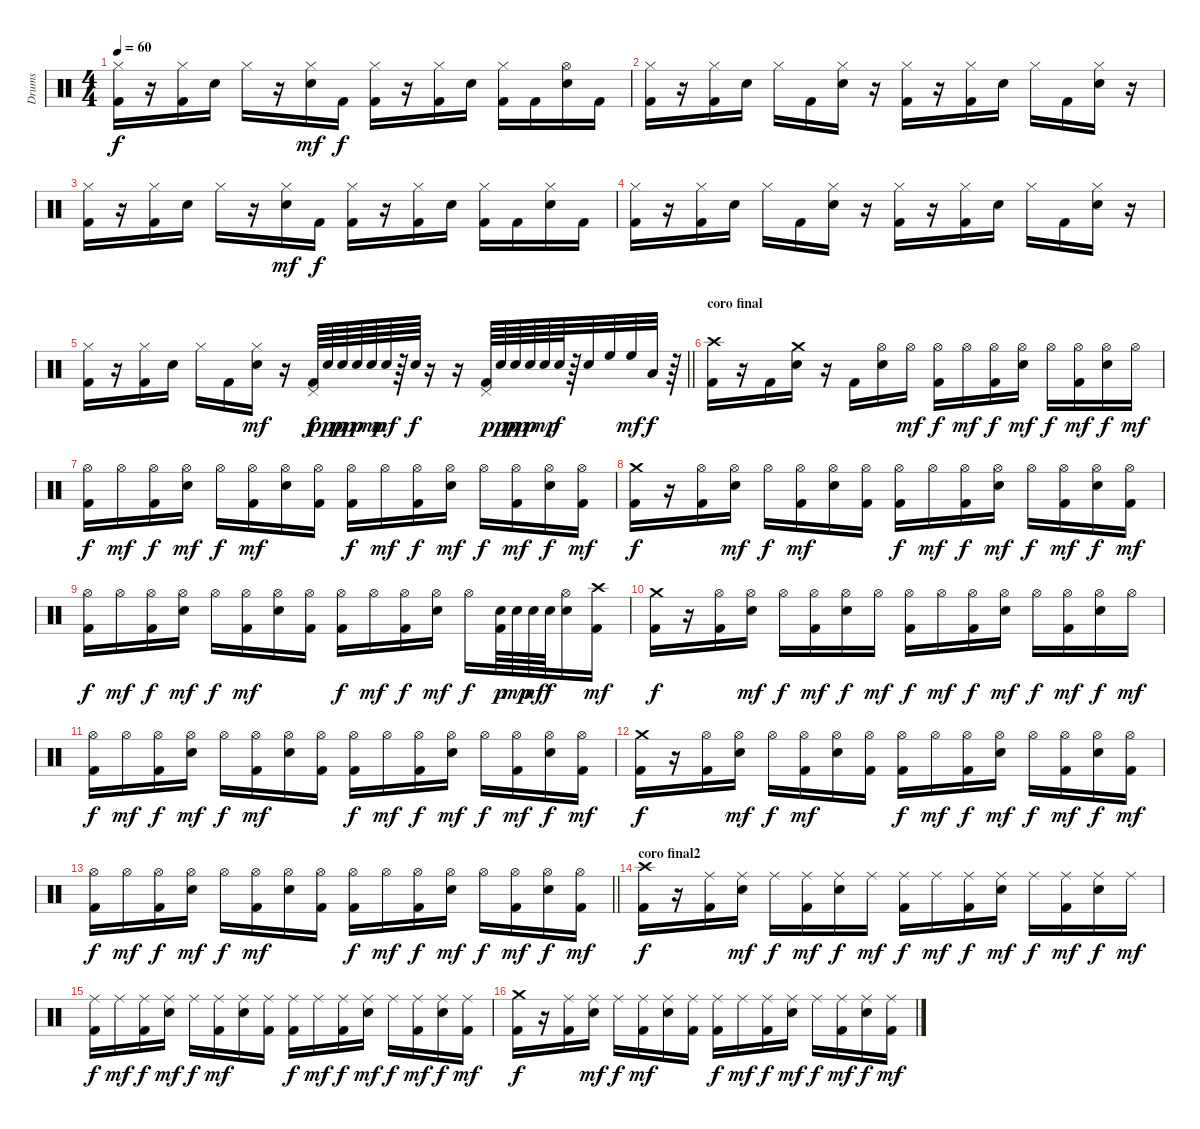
\track ("Drums" "Drums") {instrument percussion}
\staff {score}
\articulation defaults
\ts (4 4)
\tempo 60
\clef neutral
\ks c
("Hi-Hat (closed)" "Kick (hit) 2").16{dy f} r.16 ("Hi-Hat (closed)" "Kick (hit) 2").16 "Snare (hit) 2".16 "Hi-Hat (closed)".16 r.16 ("Hi-Hat (closed)" "Snare (hit) 2").16{dy mf} "Kick (hit) 2".16{dy f} ("Hi-Hat (closed)" "Kick (hit) 2").16 r.16 ("Hi-Hat (closed)" "Kick (hit) 2").16 "Snare (hit) 2".16 ("Hi-Hat (closed)" "Kick (hit) 2").16 "Kick (hit) 2".16 ("Hi-Hat (open)" "Snare (hit) 2").16 "Kick (hit) 2".16 |
("Hi-Hat (closed)" "Kick (hit) 2").16 r.16 ("Hi-Hat (closed)" "Kick (hit) 2").16 "Snare (hit) 2".16 "Hi-Hat (closed)".16 "Kick (hit) 2".16 ("Hi-Hat (closed)" "Snare (hit) 2").16 r.16 ("Hi-Hat (closed)" "Kick (hit) 2").16 r.16 ("Hi-Hat (closed)" "Kick (hit) 2").16 "Snare (hit) 2".16 "Hi-Hat (closed)".16 "Kick (hit) 2".16 ("Hi-Hat (closed)" "Snare (hit) 2").16 r.16 |
("Hi-Hat (closed)" "Kick (hit) 2").16 r.16 ("Hi-Hat (closed)" "Kick (hit) 2").16 "Snare (hit) 2".16 "Hi-Hat (closed)".16 r.16 ("Hi-Hat (closed)" "Snare (hit) 2").16{dy mf} "Kick (hit) 2".16{dy f} ("Hi-Hat (closed)" "Kick (hit) 2").16 r.16 ("Hi-Hat (closed)" "Kick (hit) 2").16 "Snare (hit) 2".16 ("Hi-Hat (closed)" "Kick (hit) 2").16 "Kick (hit) 2".16 ("Hi-Hat (closed)" "Snare (hit) 2").16 "Kick (hit) 2".16 |
("Hi-Hat (closed)" "Kick (hit) 2").16 r.16 ("Hi-Hat (closed)" "Kick (hit) 2").16 "Snare (hit) 2".16 "Hi-Hat (closed)".16 "Kick (hit) 2".16 ("Hi-Hat (closed)" "Snare (hit) 2").16 r.16 ("Hi-Hat (closed)" "Kick (hit) 2").16 r.16 ("Hi-Hat (closed)" "Kick (hit) 2").16 "Snare (hit) 2".16 "Hi-Hat (closed)".16 "Kick (hit) 2".16 ("Hi-Hat (closed)" "Snare (hit) 2").16 r.16 |
\barLineRight lightlight
("Hi-Hat (closed)" "Kick (hit) 2").16 r.16 ("Hi-Hat (closed)" "Kick (hit) 2").16 "Snare (hit) 2".16 "Hi-Hat (closed)".16 "Kick (hit) 2".16 ("Hi-Hat (closed)" "Snare (hit) 2").16{dy mf} r.16 ("Pedal Hi-Hat (hit)" "Kick (hit) 2").64{dy f} "Snare (hit) 2".64{dy ppp} "Snare (hit) 2".64{dy pp} "Snare (hit) 2".64{dy p} "Snare (hit) 2".64{dy mp} "Snare (hit) 2".64{dy mf} r.64 "Snare (hit) 2".64{dy f} r.16 r.16 ("Pedal Hi-Hat (hit)" "Kick (hit) 2").64 "Snare (hit) 2".64{dy ppp} "Snare (hit) 2".64{dy pp} "Snare (hit) 2".64{dy p} "Snare (hit) 2".64{dy mp} "Snare (hit) 2".64{dy f} r.64 "Snare (hit) 2".32 "High Floor Tom (hit)".32 "High Floor Tom (hit)".32{dy mf} "Low Tom (hit)".32{dy f} r.64 |
\section ("" "coro final")
("Crash high (hit)" "Kick (hit) 2").16 r.16 "Kick (hit) 2".16 ("Crash medium (hit)" "Snare (hit) 2").16 r.16 "Kick (hit) 2".16 ("Hi-Hat (open)" "Snare (hit) 2").16 "Hi-Hat (open)".16{dy mf} ("Hi-Hat (open)" "Kick (hit) 2").16{dy f} "Hi-Hat (open)".16{dy mf} ("Hi-Hat (open)" "Kick (hit) 2").16{dy f} ("Hi-Hat (open)" "Snare (hit) 2").16{dy mf} "Hi-Hat (open)".16{dy f} ("Hi-Hat (open)" "Kick (hit) 2").16{dy mf} ("Hi-Hat (open)" "Snare (hit) 2").16{dy f} "Hi-Hat (open)".16{dy mf} |
("Hi-Hat (open)" "Kick (hit) 2").16{dy f} "Hi-Hat (open)".16{dy mf} ("Hi-Hat (open)" "Kick (hit) 2").16{dy f} ("Hi-Hat (open)" "Snare (hit) 2").16{dy mf} "Hi-Hat (open)".16{dy f} ("Hi-Hat (open)" "Kick (hit) 2").16{dy mf} ("Hi-Hat (open)" "Snare (hit) 2").16 ("Hi-Hat (open)" "Kick (hit) 2").16 ("Hi-Hat (open)" "Kick (hit) 2").16{dy f} "Hi-Hat (open)".16{dy mf} ("Hi-Hat (open)" "Kick (hit) 2").16{dy f} ("Hi-Hat (open)" "Snare (hit) 2").16{dy mf} "Hi-Hat (open)".16{dy f} ("Hi-Hat (open)" "Kick (hit) 2").16{dy mf} ("Hi-Hat (open)" "Snare (hit) 2").16{dy f} ("Hi-Hat (open)" "Kick (hit) 2").16{dy mf} |
("Crash medium (hit)" "Kick (hit) 2").16{dy f} r.16 ("Hi-Hat (open)" "Kick (hit) 2").16 ("Hi-Hat (open)" "Snare (hit) 2").16{dy mf} "Hi-Hat (open)".16{dy f} ("Hi-Hat (open)" "Kick (hit) 2").16{dy mf} ("Hi-Hat (open)" "Snare (hit) 2").16 ("Hi-Hat (open)" "Kick (hit) 2").16 ("Hi-Hat (open)" "Kick (hit) 2").16{dy f} "Hi-Hat (open)".16{dy mf} ("Hi-Hat (open)" "Kick (hit) 2").16{dy f} ("Hi-Hat (open)" "Snare (hit) 2").16{dy mf} "Hi-Hat (open)".16{dy f} ("Hi-Hat (open)" "Kick (hit) 2").16{dy mf} ("Hi-Hat (open)" "Snare (hit) 2").16{dy f} ("Hi-Hat (open)" "Kick (hit) 2").16{dy mf} |
("Hi-Hat (open)" "Kick (hit) 2").16{dy f} "Hi-Hat (open)".16{dy mf} ("Hi-Hat (open)" "Kick (hit) 2").16{dy f} ("Hi-Hat (open)" "Snare (hit) 2").16{dy mf} "Hi-Hat (open)".16{dy f} ("Hi-Hat (open)" "Kick (hit) 2").16{dy mf} ("Hi-Hat (open)" "Snare (hit) 2").16 ("Hi-Hat (open)" "Kick (hit) 2").16 ("Hi-Hat (open)" "Kick (hit) 2").16{dy f} "Hi-Hat (open)".16{dy mf} ("Hi-Hat (open)" "Kick (hit) 2").16{dy f} ("Hi-Hat (open)" "Snare (hit) 2").16{dy mf} "Hi-Hat (open)".16{dy f} ("Snare (hit) 2" "Kick (hit) 2").64{dy p} "Snare (hit) 2".64{dy mp} "Snare (hit) 2".64{dy mf} "Snare (hit) 2".64{dy f} ("Hi-Hat (open)" "Snare (hit) 2").16 ("Crash high (hit)" "Kick (hit) 2").16{dy mf} |
("Crash medium (hit)" "Kick (hit) 2").16{dy f} r.16 ("Hi-Hat (open)" "Kick (hit) 2").16 ("Hi-Hat (open)" "Snare (hit) 2").16{dy mf} "Hi-Hat (open)".16{dy f} ("Hi-Hat (open)" "Kick (hit) 2").16{dy mf} ("Hi-Hat (open)" "Snare (hit) 2").16{dy f} "Hi-Hat (open)".16{dy mf} ("Hi-Hat (open)" "Kick (hit) 2").16{dy f} "Hi-Hat (open)".16{dy mf} ("Hi-Hat (open)" "Kick (hit) 2").16{dy f} ("Hi-Hat (open)" "Snare (hit) 2").16{dy mf} "Hi-Hat (open)".16{dy f} ("Hi-Hat (open)" "Kick (hit) 2").16{dy mf} ("Hi-Hat (open)" "Snare (hit) 2").16{dy f} "Hi-Hat (open)".16{dy mf} |
("Hi-Hat (open)" "Kick (hit) 2").16{dy f} "Hi-Hat (open)".16{dy mf} ("Hi-Hat (open)" "Kick (hit) 2").16{dy f} ("Hi-Hat (open)" "Snare (hit) 2").16{dy mf} "Hi-Hat (open)".16{dy f} ("Hi-Hat (open)" "Kick (hit) 2").16{dy mf} ("Hi-Hat (open)" "Snare (hit) 2").16 ("Hi-Hat (open)" "Kick (hit) 2").16 ("Hi-Hat (open)" "Kick (hit) 2").16{dy f} "Hi-Hat (open)".16{dy mf} ("Hi-Hat (open)" "Kick (hit) 2").16{dy f} ("Hi-Hat (open)" "Snare (hit) 2").16{dy mf} "Hi-Hat (open)".16{dy f} ("Hi-Hat (open)" "Kick (hit) 2").16{dy mf} ("Hi-Hat (open)" "Snare (hit) 2").16{dy f} ("Hi-Hat (open)" "Kick (hit) 2").16{dy mf} |
("Crash medium (hit)" "Kick (hit) 2").16{dy f} r.16 ("Hi-Hat (open)" "Kick (hit) 2").16 ("Hi-Hat (open)" "Snare (hit) 2").16{dy mf} "Hi-Hat (open)".16{dy f} ("Hi-Hat (open)" "Kick (hit) 2").16{dy mf} ("Hi-Hat (open)" "Snare (hit) 2").16 ("Hi-Hat (open)" "Kick (hit) 2").16 ("Hi-Hat (open)" "Kick (hit) 2").16{dy f} "Hi-Hat (open)".16{dy mf} ("Hi-Hat (open)" "Kick (hit) 2").16{dy f} ("Hi-Hat (open)" "Snare (hit) 2").16{dy mf} "Hi-Hat (open)".16{dy f} ("Hi-Hat (open)" "Kick (hit) 2").16{dy mf} ("Hi-Hat (open)" "Snare (hit) 2").16{dy f} ("Hi-Hat (open)" "Kick (hit) 2").16{dy mf} |
\barLineRight lightlight
("Hi-Hat (open)" "Kick (hit) 2").16{dy f} "Hi-Hat (open)".16{dy mf} ("Hi-Hat (open)" "Kick (hit) 2").16{dy f} ("Hi-Hat (open)" "Snare (hit) 2").16{dy mf} "Hi-Hat (open)".16{dy f} ("Hi-Hat (open)" "Kick (hit) 2").16{dy mf} ("Hi-Hat (open)" "Snare (hit) 2").16 ("Hi-Hat (open)" "Kick (hit) 2").16 ("Hi-Hat (open)" "Kick (hit) 2").16{dy f} "Hi-Hat (open)".16{dy mf} ("Hi-Hat (open)" "Kick (hit) 2").16{dy f} ("Hi-Hat (open)" "Snare (hit) 2").16{dy mf} "Hi-Hat (open)".16{dy f} ("Hi-Hat (open)" "Kick (hit) 2").16{dy mf} ("Hi-Hat (open)" "Snare (hit) 2").16{dy f} ("Hi-Hat (open)" "Kick (hit) 2").16{dy mf} |
\section ("" "coro final2")
("Crash high (hit)" "Kick (hit) 2").16{dy f} r.16 ("Ride (middle)" "Kick (hit) 2").16 ("Ride (middle)" "Snare (hit) 2").16{dy mf} "Ride (middle)".16{dy f} ("Ride (middle)" "Kick (hit) 2").16{dy mf} ("Ride (middle)" "Snare (hit) 2").16{dy f} "Ride (middle)".16{dy mf} ("Ride (middle)" "Kick (hit) 2").16{dy f} "Ride (middle)".16{dy mf} ("Ride (middle)" "Kick (hit) 2").16{dy f} ("Ride (middle)" "Snare (hit) 2").16{dy mf} "Ride (middle)".16{dy f} ("Ride (middle)" "Kick (hit) 2").16{dy mf} ("Ride (middle)" "Snare (hit) 2").16{dy f} "Ride (middle)".16{dy mf} |
("Ride (middle)" "Kick (hit) 2").16{dy f} "Ride (middle)".16{dy mf} ("Ride (middle)" "Kick (hit) 2").16{dy f} ("Ride (middle)" "Snare (hit) 2").16{dy mf} "Ride (middle)".16{dy f} ("Ride (middle)" "Kick (hit) 2").16{dy mf} ("Ride (middle)" "Snare (hit) 2").16 ("Ride (middle)" "Kick (hit) 2").16 ("Ride (middle)" "Kick (hit) 2").16{dy f} "Ride (middle)".16{dy mf} ("Ride (middle)" "Kick (hit) 2").16{dy f} ("Ride (middle)" "Snare (hit) 2").16{dy mf} "Ride (middle)".16{dy f} ("Ride (middle)" "Kick (hit) 2").16{dy mf} ("Ride (middle)" "Snare (hit) 2").16{dy f} ("Ride (middle)" "Kick (hit) 2").16{dy mf} |
("Crash medium (hit)" "Kick (hit) 2").16{dy f} r.16 ("Ride (middle)" "Kick (hit) 2").16 ("Ride (middle)" "Snare (hit) 2").16{dy mf} "Ride (middle)".16{dy f} ("Ride (middle)" "Kick (hit) 2").16{dy mf} ("Ride (middle)" "Snare (hit) 2").16 ("Ride (middle)" "Kick (hit) 2").16 ("Ride (middle)" "Kick (hit) 2").16{dy f} "Ride (middle)".16{dy mf} ("Ride (middle)" "Kick (hit) 2").16{dy f} ("Ride (middle)" "Snare (hit) 2").16{dy mf} "Ride (middle)".16{dy f} ("Ride (middle)" "Kick (hit) 2").16{dy mf} ("Ride (middle)" "Snare (hit) 2").16{dy f} ("Ride (middle)" "Kick (hit) 2").16{dy mf}
